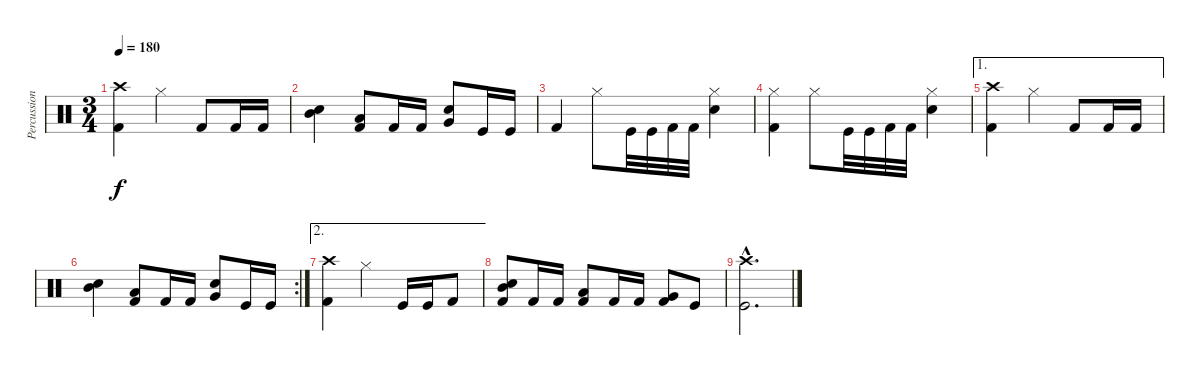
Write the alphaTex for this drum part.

\track ("Percussion" "Percussion") {instrument percussion}
\staff {score}
\articulation defaults
\ts (3 4)
\tempo 180
\clef neutral
\ks c
("Crash high (hit)" "Kick (hit) 2").4{dy f} "Hi-Hat (closed)".4 "Kick (hit) 2".8 "Kick (hit) 2".16 "Kick (hit) 2".16 |
("Mid Tom (hit)" "Snare (hit) 2").4 ("Low Tom (hit)" "Kick (hit) 2").8 "Kick (hit) 2".16 "Kick (hit) 2".16 ("Very Low Tom (hit)" "Snare (hit) 2").8 "Kick (hit)".16 "Kick (hit)".16 |
"Kick (hit) 2".4 "Hi-Hat (closed)".8 "Kick (hit)".32 "Kick (hit)".32 "Kick (hit) 2".32 "Kick (hit) 2".32 ("Hi-Hat (closed)" "Snare (hit) 2").4 |
("Hi-Hat (closed)" "Kick (hit) 2").4 "Hi-Hat (closed)".8 "Kick (hit)".32 "Kick (hit)".32 "Kick (hit) 2".32 "Kick (hit) 2".32 ("Hi-Hat (closed)" "Snare (hit) 2").4 |
\ae 1
("Crash high (hit)" "Kick (hit) 2").4 "Hi-Hat (closed)".4 "Kick (hit) 2".8 "Kick (hit) 2".16 "Kick (hit) 2".16 |
\rc 2
("Mid Tom (hit)" "Snare (hit) 2").4 ("Low Tom (hit)" "Kick (hit) 2").8 "Kick (hit) 2".16 "Kick (hit) 2".16 ("Very Low Tom (hit)" "Snare (hit) 2").8 "Kick (hit)".16 "Kick (hit)".16 |
\ae 2
("Crash high (hit)" "Kick (hit) 2").4 "Hi-Hat (closed)".4 "Kick (hit)".16 "Kick (hit)".16 "Kick (hit) 2".8 |
("Snare (hit) 2" "Mid Tom (hit)" "Kick (hit) 2").8 "Kick (hit) 2".16 "Kick (hit) 2".16 ("Low Tom (hit)" "Kick (hit) 2").8 "Kick (hit) 2".16 "Kick (hit) 2".16 ("Very Low Tom (hit)" "Kick (hit) 2").8 "Kick (hit)".8 |
("Crash high (hit)"{hac} "Kick (hit)"{hac}).2{d}
